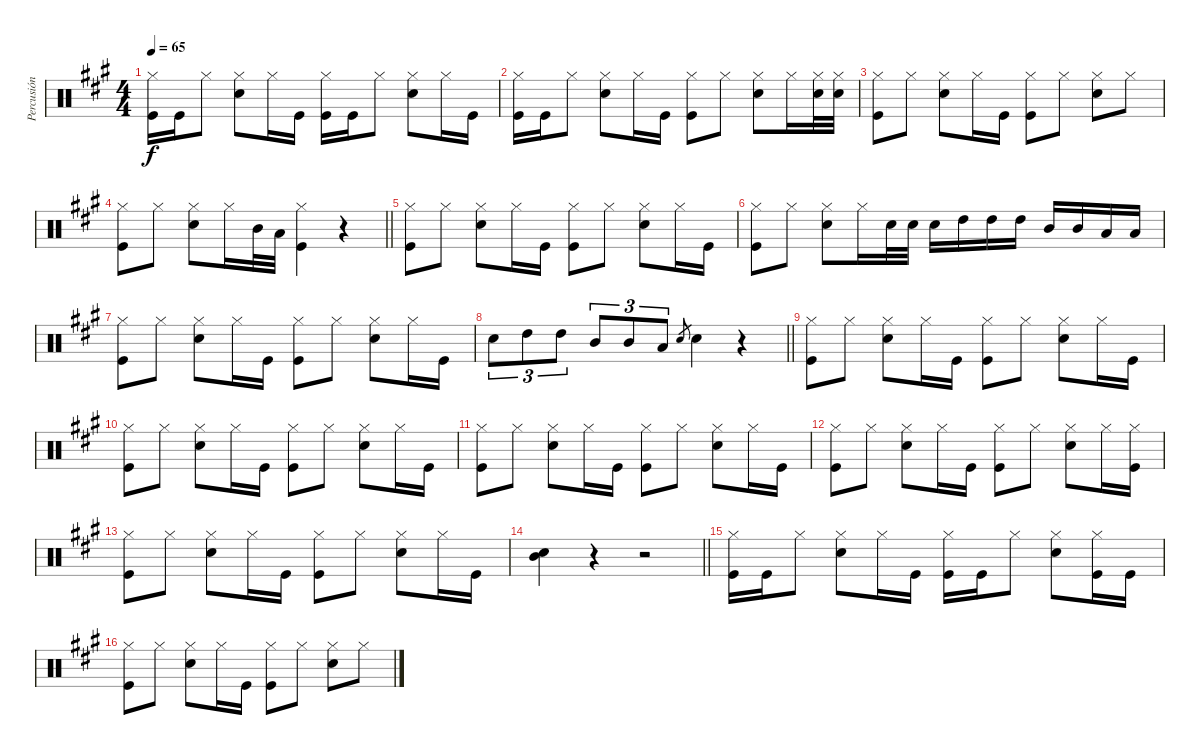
\track ("Percusión" "Percusión") {instrument percussion}
\staff {score}
\articulation defaults
\ts (4 4)
\tempo 65
\clef neutral
\ks f#minor
("Hi-Hat (closed)" "Kick (hit)").16{dy f} "Kick (hit)".16 "Hi-Hat (closed)".8 ("Hi-Hat (closed)" "Snare (hit) 2").8 "Hi-Hat (closed)".16 "Kick (hit)".16 ("Hi-Hat (closed)" "Kick (hit)").16 "Kick (hit)".16 "Hi-Hat (closed)".8 ("Hi-Hat (closed)" "Snare (hit) 2").8 "Hi-Hat (closed)".16 "Kick (hit)".16 |
("Hi-Hat (closed)" "Kick (hit)").16 "Kick (hit)".16 "Hi-Hat (closed)".8 ("Hi-Hat (closed)" "Snare (hit) 2").8 "Hi-Hat (closed)".16 "Kick (hit)".16 ("Hi-Hat (closed)" "Kick (hit)").8 "Hi-Hat (closed)".8 ("Hi-Hat (closed)" "Snare (hit) 2").8 "Hi-Hat (closed)".16 ("Hi-Hat (closed)" "Snare (hit) 2").32 ("Hi-Hat (closed)" "Snare (hit) 2").32 |
("Hi-Hat (closed)" "Kick (hit)").8 "Hi-Hat (closed)".8 ("Hi-Hat (closed)" "Snare (hit) 2").8 "Hi-Hat (closed)".16 "Kick (hit)".16 ("Hi-Hat (closed)" "Kick (hit)").8 "Hi-Hat (closed)".8 ("Hi-Hat (closed)" "Snare (hit) 2").8 "Hi-Hat (closed)".8 |
\barLineRight lightlight
("Hi-Hat (closed)" "Kick (hit)").8 "Hi-Hat (closed)".8 ("Hi-Hat (closed)" "Snare (hit) 2").8 "Hi-Hat (closed)".16 "Mid Tom (hit)".32 "Low Tom (hit)".32 ("Hi-Hat (closed)" "Kick (hit)").4 r.4 |
("Hi-Hat (closed)" "Kick (hit)").8 "Hi-Hat (closed)".8 ("Hi-Hat (closed)" "Snare (hit) 2").8 "Hi-Hat (closed)".16 "Kick (hit)".16 ("Hi-Hat (closed)" "Kick (hit)").8 "Hi-Hat (closed)".8 ("Hi-Hat (closed)" "Snare (hit) 2").8 "Hi-Hat (closed)".16 "Kick (hit)".16 |
("Hi-Hat (closed)" "Kick (hit)").8 "Hi-Hat (closed)".8 ("Hi-Hat (closed)" "Snare (hit) 2").8 "Hi-Hat (closed)".16 "Snare (hit) 2".32 "Snare (hit) 2".32 "Snare (hit) 2".16 "High Tom (hit)".16 "High Tom (hit)".16 "High Tom (hit)".16 "Mid Tom (hit)".16 "Mid Tom (hit)".16 "Low Tom (hit)".16 "Low Tom (hit)".16 |
("Hi-Hat (closed)" "Kick (hit)").8 "Hi-Hat (closed)".8 ("Hi-Hat (closed)" "Snare (hit) 2").8 "Hi-Hat (closed)".16 "Kick (hit)".16 ("Hi-Hat (closed)" "Kick (hit)").8 "Hi-Hat (closed)".8 ("Hi-Hat (closed)" "Snare (hit) 2").8 "Hi-Hat (closed)".16 "Kick (hit)".16 |
\barLineRight lightlight "Snare (hit) 2".8{tu (3 2)} "High Tom (hit)".8{tu (3 2)} "High Tom (hit)".8{tu (3 2)} "Mid Tom (hit)".8{tu (3 2)} "Mid Tom (hit)".8{tu (3 2)} "Low Tom (hit)".8{tu (3 2)} "Snare (hit) 2".8{gr} "Snare (hit) 2".4
r.4 |
("Hi-Hat (closed)" "Kick (hit)").8 "Hi-Hat (closed)".8 ("Hi-Hat (closed)" "Snare (hit) 2").8 "Hi-Hat (closed)".16 "Kick (hit)".16 ("Hi-Hat (closed)" "Kick (hit)").8 "Hi-Hat (closed)".8 ("Hi-Hat (closed)" "Snare (hit) 2").8 "Hi-Hat (closed)".16 "Kick (hit)".16 |
("Hi-Hat (closed)" "Kick (hit)").8 "Hi-Hat (closed)".8 ("Hi-Hat (closed)" "Snare (hit) 2").8 "Hi-Hat (closed)".16 "Kick (hit)".16 ("Hi-Hat (closed)" "Kick (hit)").8 "Hi-Hat (closed)".8 ("Hi-Hat (closed)" "Snare (hit) 2").8 "Hi-Hat (closed)".16 "Kick (hit)".16 |
("Hi-Hat (closed)" "Kick (hit)").8 "Hi-Hat (closed)".8 ("Hi-Hat (closed)" "Snare (hit) 2").8 "Hi-Hat (closed)".16 "Kick (hit)".16 ("Hi-Hat (closed)" "Kick (hit)").8 "Hi-Hat (closed)".8 ("Hi-Hat (closed)" "Snare (hit) 2").8 "Hi-Hat (closed)".16 "Kick (hit)".16 |
("Hi-Hat (closed)" "Kick (hit)").8 "Hi-Hat (closed)".8 ("Hi-Hat (closed)" "Snare (hit) 2").8 "Hi-Hat (closed)".16 "Kick (hit)".16 ("Hi-Hat (closed)" "Kick (hit)").8 "Hi-Hat (closed)".8 ("Hi-Hat (closed)" "Snare (hit) 2").8 "Hi-Hat (closed)".16 ("Hi-Hat (closed)" "Kick (hit)").16 |
("Hi-Hat (closed)" "Kick (hit)").8 "Hi-Hat (closed)".8 ("Hi-Hat (closed)" "Snare (hit) 2").8 "Hi-Hat (closed)".16 "Kick (hit)".16 ("Hi-Hat (closed)" "Kick (hit)").8 "Hi-Hat (closed)".8 ("Hi-Hat (closed)" "Snare (hit) 2").8 "Hi-Hat (closed)".16 "Kick (hit)".16 |
\barLineRight lightlight
("Mid Tom (hit)" "Snare (hit) 2").4 r.4 r.2 |
("Hi-Hat (closed)" "Kick (hit)").16 "Kick (hit)".16 "Hi-Hat (closed)".8 ("Hi-Hat (closed)" "Snare (hit) 2").8 "Hi-Hat (closed)".16 "Kick (hit)".16 ("Hi-Hat (closed)" "Kick (hit)").16 "Kick (hit)".16 "Hi-Hat (closed)".8 ("Hi-Hat (closed)" "Snare (hit) 2").8 ("Hi-Hat (closed)" "Kick (hit)").16 "Kick (hit)".16 |
("Hi-Hat (closed)" "Kick (hit)").8 "Hi-Hat (closed)".8 ("Hi-Hat (closed)" "Snare (hit) 2").8 "Hi-Hat (closed)".16 "Kick (hit)".16 ("Hi-Hat (closed)" "Kick (hit)").8 "Hi-Hat (closed)".8 ("Hi-Hat (closed)" "Snare (hit) 2").8 "Hi-Hat (closed)".8
